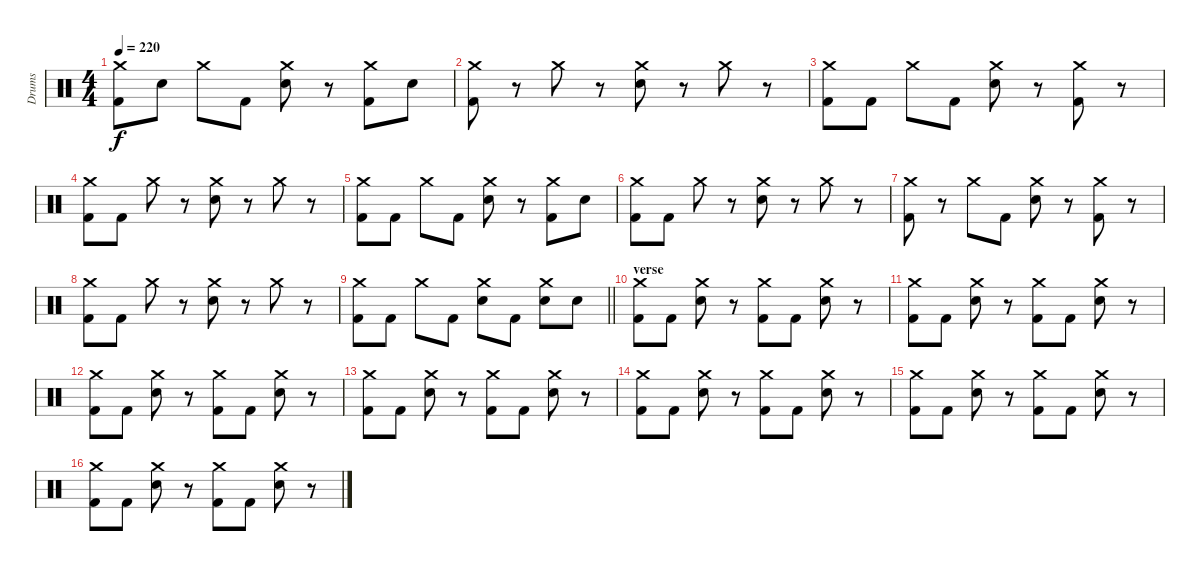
\track ("Drums" "Drums") {instrument percussion}
\staff {score}
\articulation defaults
\ts (4 4)
\tempo 220
\clef neutral
\ks c
("Crash medium (hit)" "Kick (hit) 2").8{dy f} "Electric Snare (hit)".8 "Crash medium (hit)".8 "Kick (hit) 2".8 ("Crash medium (hit)" "Electric Snare (hit)").8 r.8 ("Crash medium (hit)" "Kick (hit) 2").8 "Electric Snare (hit)".8 |
("Crash medium (hit)" "Kick (hit) 2").8 r.8 "Crash medium (hit)".8 r.8 ("Crash medium (hit)" "Electric Snare (hit)").8 r.8 "Crash medium (hit)".8 r.8 |
("Crash medium (hit)" "Kick (hit) 2").8 "Kick (hit) 2".8 "Crash medium (hit)".8 "Kick (hit) 2".8 ("Crash medium (hit)" "Electric Snare (hit)").8 r.8 ("Crash medium (hit)" "Kick (hit) 2").8 r.8 |
("Crash medium (hit)" "Kick (hit) 2").8 "Kick (hit) 2".8 "Crash medium (hit)".8 r.8 ("Crash medium (hit)" "Electric Snare (hit)").8 r.8 "Crash medium (hit)".8 r.8 |
("Crash medium (hit)" "Kick (hit) 2").8 "Kick (hit) 2".8 "Crash medium (hit)".8 "Kick (hit) 2".8 ("Crash medium (hit)" "Electric Snare (hit)").8 r.8 ("Crash medium (hit)" "Kick (hit) 2").8 "Electric Snare (hit)".8 |
("Crash medium (hit)" "Kick (hit) 2").8 "Kick (hit) 2".8 "Crash medium (hit)".8 r.8 ("Crash medium (hit)" "Electric Snare (hit)").8 r.8 "Crash medium (hit)".8 r.8 |
("Crash medium (hit)" "Kick (hit) 2").8 r.8 "Crash medium (hit)".8 "Kick (hit) 2".8 ("Crash medium (hit)" "Electric Snare (hit)").8 r.8 ("Crash medium (hit)" "Kick (hit) 2").8 r.8 |
("Crash medium (hit)" "Kick (hit) 2").8 "Kick (hit) 2".8 "Crash medium (hit)".8 r.8 ("Crash medium (hit)" "Electric Snare (hit)").8 r.8 "Crash medium (hit)".8 r.8 |
\barLineRight lightlight
("Crash medium (hit)" "Kick (hit) 2").8 "Kick (hit) 2".8 "Crash medium (hit)".8 "Kick (hit) 2".8 ("Crash medium (hit)" "Electric Snare (hit)").8 "Kick (hit) 2".8 ("Crash medium (hit)" "Electric Snare (hit)").8 "Electric Snare (hit)".8 |
\section ("" "verse")
("Crash medium (hit)" "Kick (hit) 2").8 "Kick (hit) 2".8 ("Crash medium (hit)" "Electric Snare (hit)").8 r.8 ("Crash medium (hit)" "Kick (hit) 2").8 "Kick (hit) 2".8 ("Crash medium (hit)" "Electric Snare (hit)").8 r.8 |
("Crash medium (hit)" "Kick (hit) 2").8 "Kick (hit) 2".8 ("Crash medium (hit)" "Electric Snare (hit)").8 r.8 ("Crash medium (hit)" "Kick (hit) 2").8 "Kick (hit) 2".8 ("Crash medium (hit)" "Electric Snare (hit)").8 r.8 |
("Crash medium (hit)" "Kick (hit) 2").8 "Kick (hit) 2".8 ("Crash medium (hit)" "Electric Snare (hit)").8 r.8 ("Crash medium (hit)" "Kick (hit) 2").8 "Kick (hit) 2".8 ("Crash medium (hit)" "Electric Snare (hit)").8 r.8 |
("Crash medium (hit)" "Kick (hit) 2").8 "Kick (hit) 2".8 ("Crash medium (hit)" "Electric Snare (hit)").8 r.8 ("Crash medium (hit)" "Kick (hit) 2").8 "Kick (hit) 2".8 ("Crash medium (hit)" "Electric Snare (hit)").8 r.8 |
("Crash medium (hit)" "Kick (hit) 2").8 "Kick (hit) 2".8 ("Crash medium (hit)" "Electric Snare (hit)").8 r.8 ("Crash medium (hit)" "Kick (hit) 2").8 "Kick (hit) 2".8 ("Crash medium (hit)" "Electric Snare (hit)").8 r.8 |
("Crash medium (hit)" "Kick (hit) 2").8 "Kick (hit) 2".8 ("Crash medium (hit)" "Electric Snare (hit)").8 r.8 ("Crash medium (hit)" "Kick (hit) 2").8 "Kick (hit) 2".8 ("Crash medium (hit)" "Electric Snare (hit)").8 r.8 |
("Crash medium (hit)" "Kick (hit) 2").8 "Kick (hit) 2".8 ("Crash medium (hit)" "Electric Snare (hit)").8 r.8 ("Crash medium (hit)" "Kick (hit) 2").8 "Kick (hit) 2".8 ("Crash medium (hit)" "Electric Snare (hit)").8 r.8
